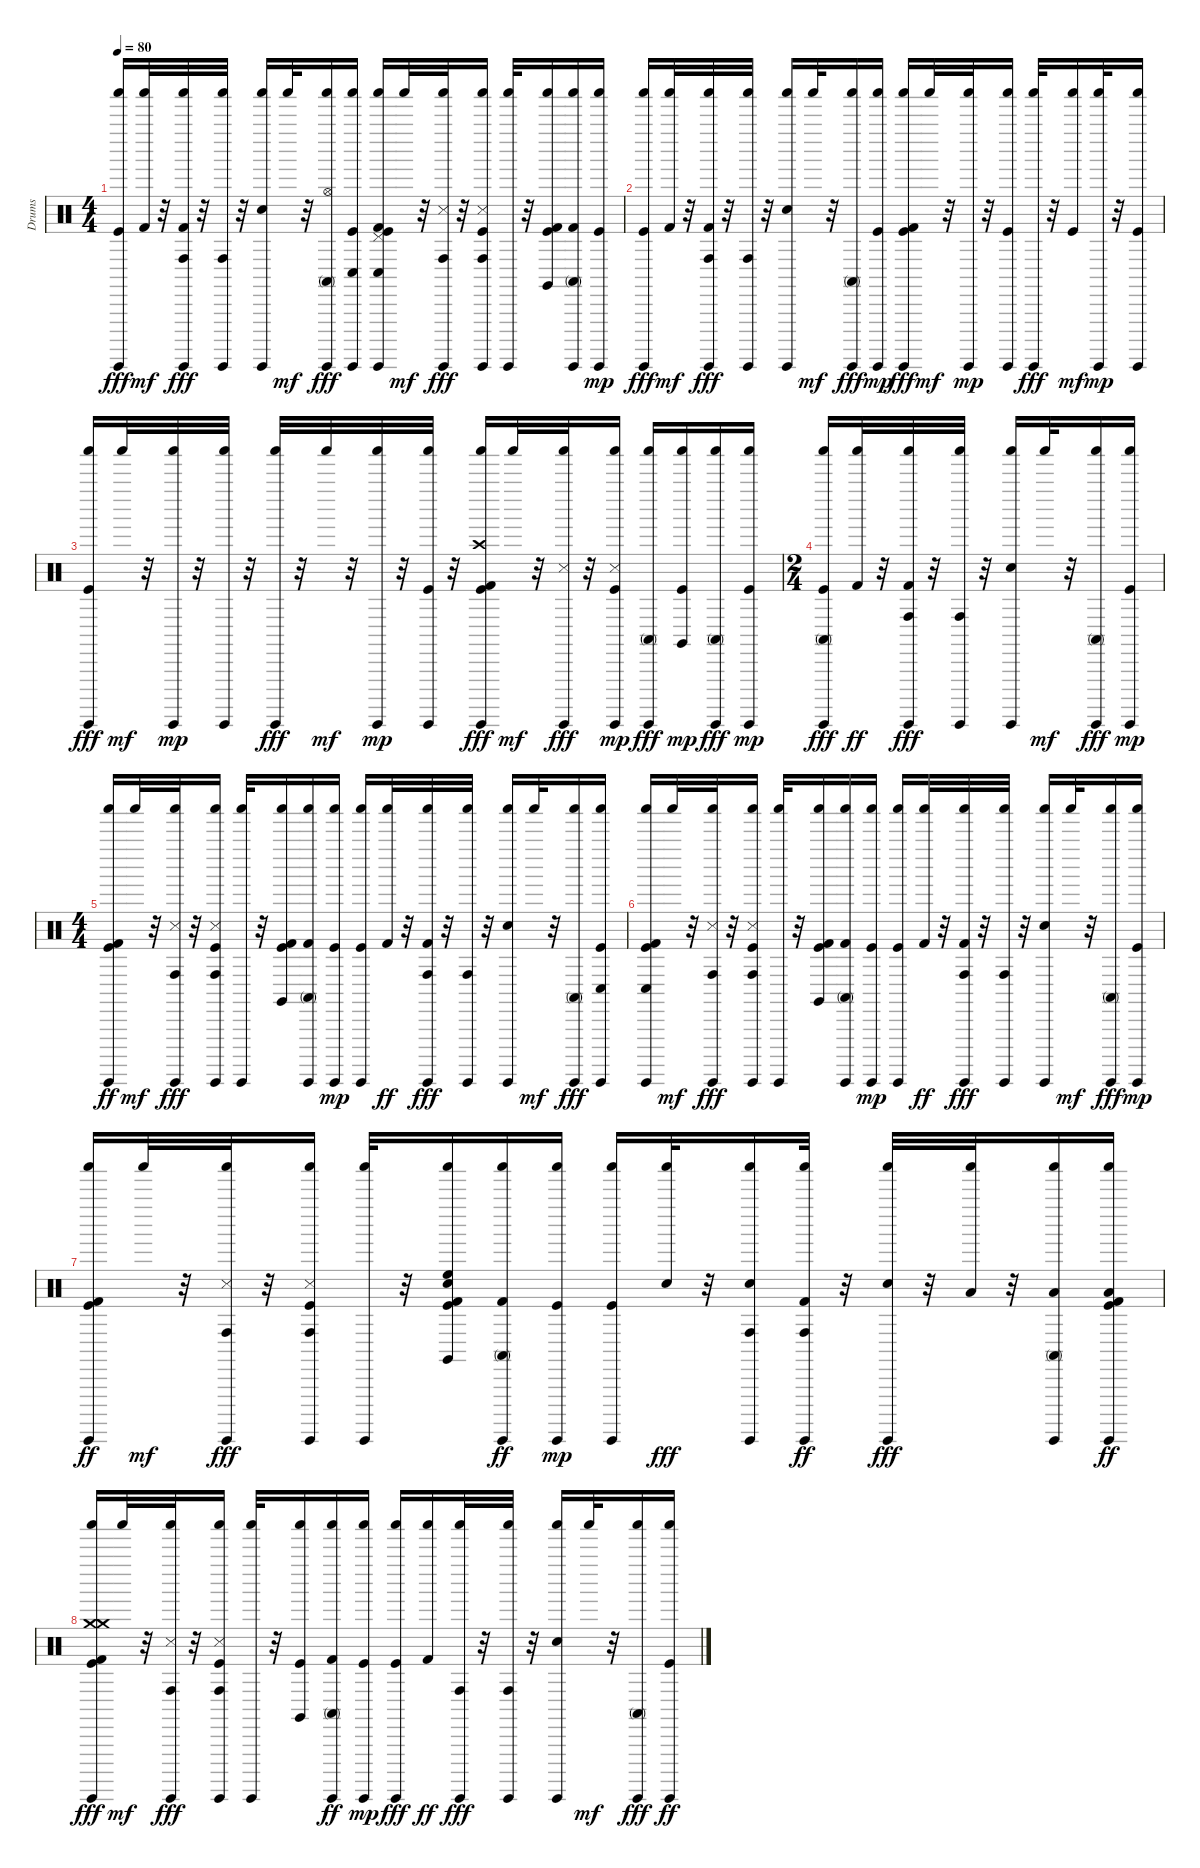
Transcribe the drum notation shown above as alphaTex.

\track ("Drums" "Drums") {instrument percussion}
\staff {score}
\articulation defaults
\ts (4 4)
\tempo 80
\clef neutral
\ks c
("Kick (hit)" "Guiro (hit)" "Shaker (hit)").16{dy fff} ("Kick (hit) 2" "Shaker (hit)").32{dy mf} r.32 ("Guiro (hit)" "Kick (hit) 2" "Shaker (hit)" "Conga high (hit)").32{dy fff} r.32 ("Guiro (hit)" "Shaker (hit)" "Conga high (hit)").32 r.32 ("Guiro (hit)" "Electric Snare (hit)" "Shaker (hit)").16 "Shaker (hit)".32{dy mf} r.32 ("Guiro (hit)" "Shaker (hit)" "Hi-Hat (open)" "Conga high (mute)").16{dy fff} ("Kick (hit)" "Guiro (hit)" "Shaker (hit)" "Conga low (hit)").16 ("Kick (hit)" "Guiro (hit)" "Kick (hit) 2" "Shaker (hit)" "Pedal Hi-Hat (hit)" "Conga low (hit)").16 "Shaker (hit)".32{dy mf} r.32 ("Guiro (hit)" "Snare (side stick) 3" "Shaker (hit)" "Conga high (hit)").32{dy fff} r.32 ("Kick (hit)" "Guiro (hit)" "Shaker (hit)" "Snare (side stick) 3" "Conga high (hit)").16 ("Guiro (hit)" "Shaker (hit)").32 r.32 ("Kick (hit)" "Kick (hit) 2" "Shaker (hit)" "Claves (hit)").16 ("Guiro (hit)" "Kick (hit) 2" "Shaker (hit)" "Conga high (mute)").16 ("Kick (hit)" "Guiro (hit)" "Shaker (hit)").16{dy mp} |
("Kick (hit)" "Guiro (hit)" "Shaker (hit)").16{dy fff} ("Kick (hit) 2" "Shaker (hit)").32{dy mf} r.32 ("Guiro (hit)" "Kick (hit) 2" "Shaker (hit)" "Conga high (hit)").32{dy fff} r.32 ("Guiro (hit)" "Shaker (hit)" "Conga high (hit)").32 r.32 ("Guiro (hit)" "Electric Snare (hit)" "Shaker (hit)").16 "Shaker (hit)".32{dy mf} r.32 ("Guiro (hit)" "Shaker (hit)" "Conga high (mute)").16{dy fff} ("Kick (hit)" "Guiro (hit)" "Shaker (hit)").16{dy mp} ("Kick (hit)" "Guiro (hit)" "Kick (hit) 2" "Shaker (hit)").16{dy fff} "Shaker (hit)".32{dy mf} r.32 ("Guiro (hit)" "Shaker (hit)").32{dy mp} r.32 ("Kick (hit)" "Guiro (hit)" "Shaker (hit)").16 ("Guiro (hit)" "Shaker (hit)").32{dy fff} r.32 ("Kick (hit)" "Shaker (hit)").16{dy mf} ("Guiro (hit)" "Shaker (hit)").32{dy mp} r.32 ("Kick (hit)" "Guiro (hit)" "Shaker (hit)").16 |
("Kick (hit)" "Guiro (hit)" "Shaker (hit)").16{dy fff} "Shaker (hit)".32{dy mf} r.32 ("Guiro (hit)" "Shaker (hit)").32{dy mp} r.32 ("Guiro (hit)" "Shaker (hit)").32 r.32 ("Guiro (hit)" "Shaker (hit)").32{dy fff} r.32 "Shaker (hit)".32{dy mf} r.32 ("Guiro (hit)" "Shaker (hit)").32{dy mp} r.32 ("Guiro (hit)" "Shaker (hit)" "Kick (hit)").32 r.32 ("Guiro (hit)" "Shaker (hit)" "Kick (hit) 2" "Kick (hit)" "Crash high (hit)").16{dy fff} "Shaker (hit)".32{dy mf} r.32 ("Guiro (hit)" "Shaker (hit)" "Snare (side stick) 3").32{dy fff} r.32 ("Guiro (hit)" "Shaker (hit)" "Snare (side stick) 3" "Kick (hit)").16{dy mp} ("Guiro (hit)" "Shaker (hit)" "Conga high (mute)").16{dy fff} ("Shaker (hit)" "Claves (hit)" "Kick (hit)").16{dy mp} ("Guiro (hit)" "Shaker (hit)" "Conga high (mute)").16{dy fff} ("Guiro (hit)" "Shaker (hit)" "Kick (hit)").16{dy mp} |
\ts (2 4)
("Guiro (hit)" "Shaker (hit)" "Kick (hit)" "Conga high (mute)").16{dy fff} ("Shaker (hit)" "Kick (hit) 2").32{dy ff} r.32 ("Guiro (hit)" "Shaker (hit)" "Kick (hit) 2" "Conga high (hit)").32{dy fff} r.32 ("Guiro (hit)" "Shaker (hit)" "Conga high (hit)").32 r.32 ("Guiro (hit)" "Electric Snare (hit)" "Shaker (hit)").16 "Shaker (hit)".32{dy mf} r.32 ("Guiro (hit)" "Shaker (hit)" "Conga high (mute)").16{dy fff} ("Guiro (hit)" "Shaker (hit)" "Kick (hit)").16{dy mp} |
\ts (4 4)
("Guiro (hit)" "Shaker (hit)" "Kick (hit)" "Kick (hit) 2").16{dy ff} "Shaker (hit)".32{dy mf} r.32 ("Guiro (hit)" "Shaker (hit)" "Snare (side stick) 3" "Conga high (hit)").32{dy fff} r.32 ("Guiro (hit)" "Shaker (hit)" "Kick (hit)" "Snare (side stick) 3" "Conga high (hit)").16 ("Guiro (hit)" "Shaker (hit)").32 r.32 ("Shaker (hit)" "Kick (hit)" "Kick (hit) 2" "Claves (hit)").16 ("Guiro (hit)" "Shaker (hit)" "Kick (hit) 2" "Conga high (mute)").16 ("Guiro (hit)" "Shaker (hit)" "Kick (hit)").16{dy mp} ("Guiro (hit)" "Shaker (hit)" "Kick (hit)").16 ("Shaker (hit)" "Kick (hit) 2").32{dy ff} r.32 ("Guiro (hit)" "Shaker (hit)" "Kick (hit) 2" "Conga high (hit)").32{dy fff} r.32 ("Guiro (hit)" "Shaker (hit)" "Conga high (hit)").32 r.32 ("Guiro (hit)" "Electric Snare (hit)" "Shaker (hit)").16 "Shaker (hit)".32{dy mf} r.32 ("Guiro (hit)" "Shaker (hit)" "Conga high (mute)").16{dy fff} ("Guiro (hit)" "Shaker (hit)" "Kick (hit)" "Conga low (hit)").16 |
("Guiro (hit)" "Shaker (hit)" "Kick (hit)" "Kick (hit) 2" "Conga low (hit)").16 "Shaker (hit)".32{dy mf} r.32 ("Guiro (hit)" "Shaker (hit)" "Snare (side stick) 3" "Conga high (hit)").32{dy fff} r.32 ("Guiro (hit)" "Shaker (hit)" "Kick (hit)" "Snare (side stick) 3" "Conga high (hit)").16 ("Guiro (hit)" "Shaker (hit)").32 r.32 ("Shaker (hit)" "Kick (hit)" "Kick (hit) 2" "Claves (hit)").16 ("Guiro (hit)" "Shaker (hit)" "Kick (hit) 2" "Conga high (mute)").16 ("Guiro (hit)" "Shaker (hit)" "Kick (hit)").16{dy mp} ("Guiro (hit)" "Shaker (hit)" "Kick (hit)").16 ("Shaker (hit)" "Kick (hit) 2").32{dy ff} r.32 ("Guiro (hit)" "Shaker (hit)" "Kick (hit) 2" "Conga high (hit)").32{dy fff} r.32 ("Guiro (hit)" "Shaker (hit)" "Conga high (hit)").32 r.32 ("Guiro (hit)" "Electric Snare (hit)" "Shaker (hit)").16 "Shaker (hit)".32{dy mf} r.32 ("Guiro (hit)" "Shaker (hit)" "Conga high (mute)").16{dy fff} ("Guiro (hit)" "Shaker (hit)" "Kick (hit)").16{dy mp} |
("Guiro (hit)" "Shaker (hit)" "Kick (hit)" "Kick (hit) 2").16{dy ff} "Shaker (hit)".32{dy mf} r.32 ("Guiro (hit)" "Shaker (hit)" "Snare (side stick) 3" "Conga high (hit)").32{dy fff} r.32 ("Guiro (hit)" "Shaker (hit)" "Snare (side stick) 3" "Kick (hit)" "Conga high (hit)").16 ("Guiro (hit)" "Shaker (hit)").32 r.32 ("Shaker (hit)" "Claves (hit)" "Kick (hit)" "Kick (hit) 2" "Electric Snare (hit)" "High Floor Tom (hit)").16 ("Guiro (hit)" "Shaker (hit)" "Conga high (mute)" "Kick (hit) 2").16{dy ff} ("Guiro (hit)" "Shaker (hit)" "Kick (hit)").16{dy mp} ("Guiro (hit)" "Shaker (hit)" "Kick (hit)").16 ("Shaker (hit)" "Electric Snare (hit)").32{dy fff} r.32 ("Guiro (hit)" "Shaker (hit)" "Conga high (hit)" "Electric Snare (hit)").16 ("Guiro (hit)" "Shaker (hit)" "Conga high (hit)" "Kick (hit) 2").32{dy ff} r.32 ("Guiro (hit)" "Shaker (hit)" "Electric Snare (hit)").32{dy fff} r.32 ("Shaker (hit)" "Low Tom (hit)").32 r.32 ("Guiro (hit)" "Shaker (hit)" "Conga high (mute)" "Low Tom (hit)").16 ("Low Floor Tom (hit)" "Guiro (hit)" "Shaker (hit)" "Kick (hit)" "Kick (hit) 2").16{dy ff} |
("Crash medium (hit)" "Guiro (hit)" "Shaker (hit)" "Kick (hit)" "Kick (hit) 2" "Crash medium (hit)").16{dy fff} "Shaker (hit)".32{dy mf} r.32 ("Shaker (hit)" "Guiro (hit)" "Snare (side stick) 3" "Conga high (hit)").32{dy fff} r.32 ("Shaker (hit)" "Kick (hit)" "Guiro (hit)" "Snare (side stick) 3" "Conga high (hit)").16 ("Shaker (hit)" "Guiro (hit)").32 r.32 ("Shaker (hit)" "Kick (hit)" "Claves (hit)").16 ("Shaker (hit)" "Guiro (hit)" "Conga high (mute)" "Kick (hit) 2").16{dy ff} ("Shaker (hit)" "Kick (hit)" "Guiro (hit)").16{dy mp} ("Shaker (hit)" "Kick (hit)" "Guiro (hit)").16{dy fff} ("Shaker (hit)" "Kick (hit) 2").16{dy ff} ("Shaker (hit)" "Guiro (hit)" "Conga high (hit)").32{dy fff} r.32 ("Shaker (hit)" "Guiro (hit)" "Conga high (hit)").32 r.32 ("Shaker (hit)" "Guiro (hit)" "Electric Snare (hit)").16 "Shaker (hit)".32{dy mf} r.32 ("Shaker (hit)" "Guiro (hit)" "Conga high (mute)").16{dy fff} ("Shaker (hit)" "Kick (hit)" "Guiro (hit)").16{dy ff}
